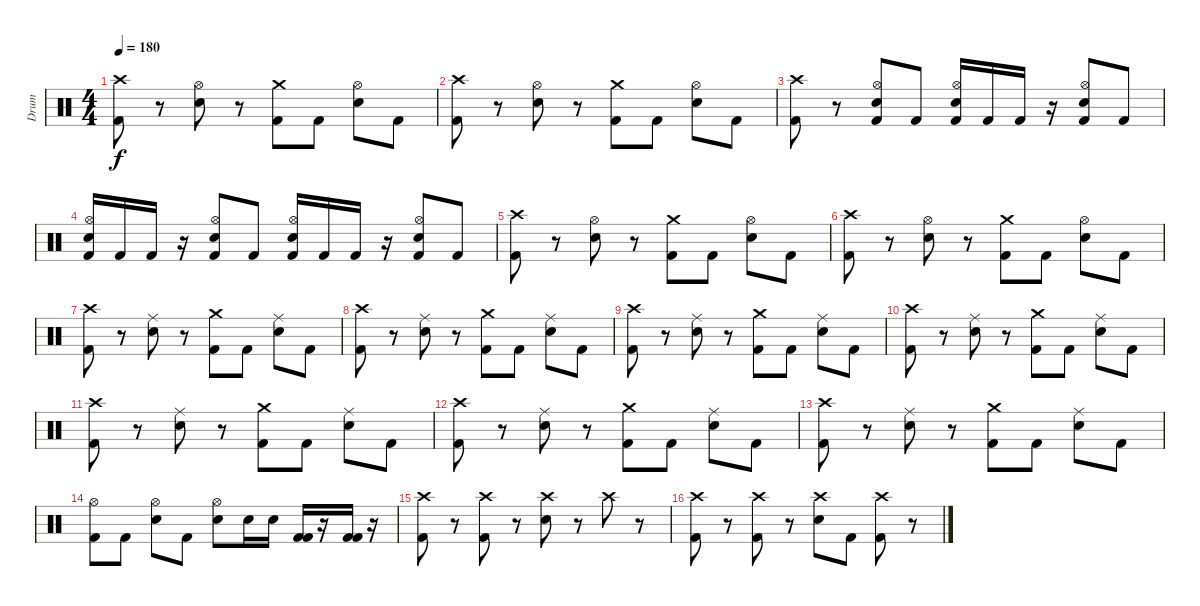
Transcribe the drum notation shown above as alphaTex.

\track ("Drum" "Drum") {instrument percussion}
\staff {score}
\articulation defaults
\ts (4 4)
\tempo 180
\clef neutral
\ks c
("Crash high (hit)" "Kick (hit) 2").8{dy f} r.8 ("Hi-Hat (open)" "Electric Snare (hit)").8 r.8 ("Crash medium (hit)" "Kick (hit) 2").8 "Kick (hit) 2".8 ("Hi-Hat (open)" "Electric Snare (hit)").8 "Kick (hit) 2".8 |
("Crash high (hit)" "Kick (hit) 2").8 r.8 ("Hi-Hat (open)" "Electric Snare (hit)").8 r.8 ("Crash medium (hit)" "Kick (hit) 2").8 "Kick (hit) 2".8 ("Hi-Hat (open)" "Electric Snare (hit)").8 "Kick (hit) 2".8 |
("Crash high (hit)" "Kick (hit) 2").8 r.8 ("Hi-Hat (open)" "Electric Snare (hit)" "Kick (hit) 2").8 "Kick (hit) 2".8 ("Hi-Hat (open)" "Electric Snare (hit)" "Kick (hit) 2").16 "Kick (hit) 2".16 "Kick (hit) 2".16 r.16 ("Hi-Hat (open)" "Electric Snare (hit)" "Kick (hit) 2").8 "Kick (hit) 2".8 |
("Hi-Hat (open)" "Electric Snare (hit)" "Kick (hit) 2").16 "Kick (hit) 2".16 "Kick (hit) 2".16 r.16 ("Hi-Hat (open)" "Electric Snare (hit)" "Kick (hit) 2").8 "Kick (hit) 2".8 ("Hi-Hat (open)" "Electric Snare (hit)" "Kick (hit) 2").16 "Kick (hit) 2".16 "Kick (hit) 2".16 r.16 ("Hi-Hat (open)" "Electric Snare (hit)" "Kick (hit) 2").8 "Kick (hit) 2".8 |
("Crash high (hit)" "Kick (hit) 2").8 r.8 ("Hi-Hat (open)" "Electric Snare (hit)").8 r.8 ("Crash medium (hit)" "Kick (hit) 2").8 "Kick (hit) 2".8 ("Hi-Hat (open)" "Electric Snare (hit)").8 "Kick (hit) 2".8 |
("Crash high (hit)" "Kick (hit) 2").8 r.8 ("Hi-Hat (open)" "Electric Snare (hit)").8 r.8 ("Crash medium (hit)" "Kick (hit) 2").8 "Kick (hit) 2".8 ("Hi-Hat (open)" "Electric Snare (hit)").8 "Kick (hit) 2".8 |
("Crash high (hit)" "Kick (hit) 2").8 r.8 ("Ride (middle)" "Electric Snare (hit)").8 r.8 ("Crash medium (hit)" "Kick (hit) 2").8 "Kick (hit) 2".8 ("Ride (middle)" "Electric Snare (hit)").8 "Kick (hit) 2".8 |
("Crash high (hit)" "Kick (hit) 2").8 r.8 ("Ride (middle)" "Electric Snare (hit)").8 r.8 ("Crash medium (hit)" "Kick (hit) 2").8 "Kick (hit) 2".8 ("Ride (middle)" "Electric Snare (hit)").8 "Kick (hit) 2".8 |
("Crash high (hit)" "Kick (hit) 2").8 r.8 ("Ride (middle)" "Electric Snare (hit)").8 r.8 ("Crash medium (hit)" "Kick (hit) 2").8 "Kick (hit) 2".8 ("Ride (middle)" "Electric Snare (hit)").8 "Kick (hit) 2".8 |
("Crash high (hit)" "Kick (hit) 2").8 r.8 ("Ride (middle)" "Electric Snare (hit)").8 r.8 ("Crash medium (hit)" "Kick (hit) 2").8 "Kick (hit) 2".8 ("Ride (middle)" "Electric Snare (hit)").8 "Kick (hit) 2".8 |
("Crash high (hit)" "Kick (hit) 2").8 r.8 ("Ride (middle)" "Electric Snare (hit)").8 r.8 ("Crash medium (hit)" "Kick (hit) 2").8 "Kick (hit) 2".8 ("Ride (middle)" "Electric Snare (hit)").8 "Kick (hit) 2".8 |
("Crash high (hit)" "Kick (hit) 2").8 r.8 ("Ride (middle)" "Electric Snare (hit)").8 r.8 ("Crash medium (hit)" "Kick (hit) 2").8 "Kick (hit) 2".8 ("Ride (middle)" "Electric Snare (hit)").8 "Kick (hit) 2".8 |
("Crash high (hit)" "Kick (hit) 2").8 r.8 ("Ride (middle)" "Electric Snare (hit)").8 r.8 ("Crash medium (hit)" "Kick (hit) 2").8 "Kick (hit) 2".8 ("Ride (middle)" "Electric Snare (hit)").8 "Kick (hit) 2".8 |
("Hi-Hat (open)" "Kick (hit) 2").8 "Kick (hit) 2".8 ("Hi-Hat (open)" "Electric Snare (hit)").8 "Kick (hit) 2".8 ("Hi-Hat (open)" "Electric Snare (hit)").8 "Electric Snare (hit)".16 "Electric Snare (hit)".16 ("Kick (hit) 2" "Kick (hit) 2").16 r.16 ("Kick (hit) 2" "Kick (hit) 2").16 r.16 |
("Crash high (hit)" "Kick (hit) 2").8 r.8 ("Crash high (hit)" "Kick (hit) 2").8 r.8 ("Crash high (hit)" "Electric Snare (hit)").8 r.8 "Crash high (hit)".8 r.8 |
("Crash high (hit)" "Kick (hit) 2").8 r.8 ("Crash high (hit)" "Kick (hit) 2").8 r.8 ("Crash high (hit)" "Electric Snare (hit)").8 "Kick (hit) 2".8 ("Crash high (hit)" "Kick (hit) 2").8 r.8
